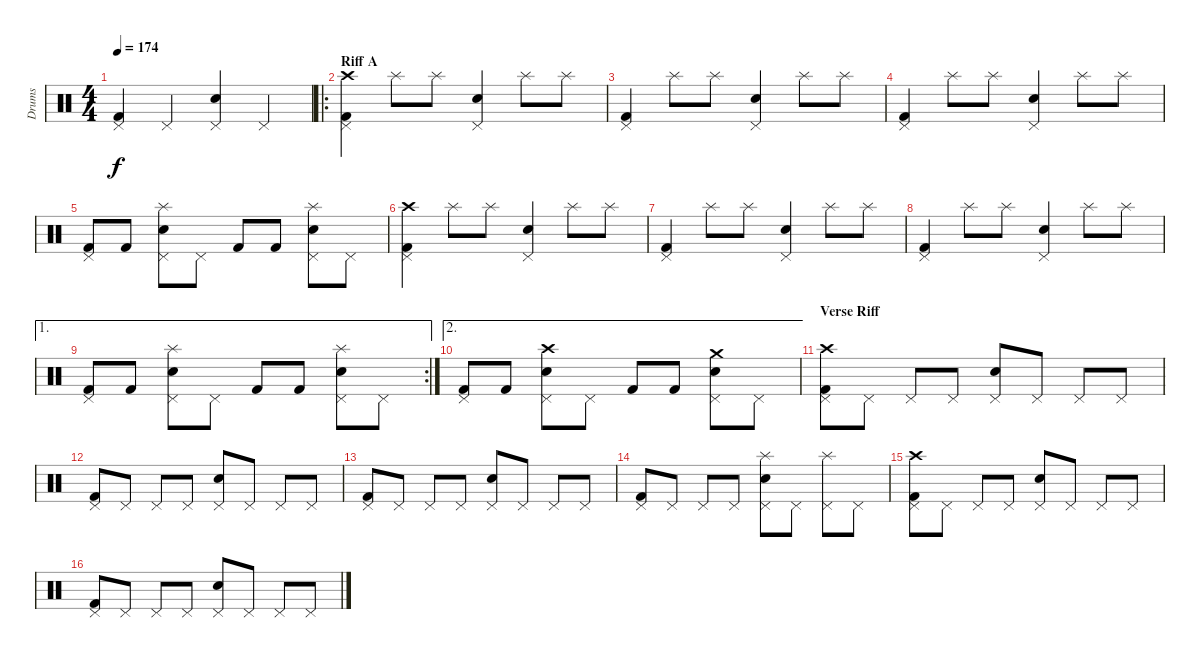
\track ("Drums" "Drums") {instrument percussion}
\staff {score}
\articulation defaults
\ts (4 4)
\tempo 174
\clef neutral
\ks c
("Kick (hit) 2" "Pedal Hi-Hat (hit)").4{dy f} "Pedal Hi-Hat (hit)".4 ("Snare (hit) 2" "Pedal Hi-Hat (hit)").4 "Pedal Hi-Hat (hit)".4 |
\ro
\section ("" "Riff A")
("Kick (hit) 2" "Pedal Hi-Hat (hit)" "Crash high (hit)").4 "Splash (hit)".8 "Splash (hit)".8 ("Snare (hit) 2" "Pedal Hi-Hat (hit)").4 "Splash (hit)".8 "Splash (hit)".8 |
("Kick (hit) 2" "Pedal Hi-Hat (hit)").4 "Splash (hit)".8 "Splash (hit)".8 ("Snare (hit) 2" "Pedal Hi-Hat (hit)").4 "Splash (hit)".8 "Splash (hit)".8 |
("Kick (hit) 2" "Pedal Hi-Hat (hit)").4 "Splash (hit)".8 "Splash (hit)".8 ("Snare (hit) 2" "Pedal Hi-Hat (hit)").4 "Splash (hit)".8 "Splash (hit)".8 |
("Kick (hit) 2" "Pedal Hi-Hat (hit)").8 "Kick (hit) 2".8 ("Snare (hit) 2" "Pedal Hi-Hat (hit)" "Splash (hit)").8 "Pedal Hi-Hat (hit)".8 "Kick (hit) 2".8 "Kick (hit) 2".8 ("Snare (hit) 2" "Pedal Hi-Hat (hit)" "Splash (hit)").8 "Pedal Hi-Hat (hit)".8 |
("Kick (hit) 2" "Pedal Hi-Hat (hit)" "Crash high (hit)").4 "Splash (hit)".8 "Splash (hit)".8 ("Snare (hit) 2" "Pedal Hi-Hat (hit)").4 "Splash (hit)".8 "Splash (hit)".8 |
("Kick (hit) 2" "Pedal Hi-Hat (hit)").4 "Splash (hit)".8 "Splash (hit)".8 ("Snare (hit) 2" "Pedal Hi-Hat (hit)").4 "Splash (hit)".8 "Splash (hit)".8 |
("Kick (hit) 2" "Pedal Hi-Hat (hit)").4 "Splash (hit)".8 "Splash (hit)".8 ("Snare (hit) 2" "Pedal Hi-Hat (hit)").4 "Splash (hit)".8 "Splash (hit)".8 |
\ae 1
\rc 2
("Kick (hit) 2" "Pedal Hi-Hat (hit)").8 "Kick (hit) 2".8 ("Snare (hit) 2" "Pedal Hi-Hat (hit)" "Splash (hit)").8 "Pedal Hi-Hat (hit)".8 "Kick (hit) 2".8 "Kick (hit) 2".8 ("Snare (hit) 2" "Pedal Hi-Hat (hit)" "Splash (hit)").8 "Pedal Hi-Hat (hit)".8 |
\ae 2
("Kick (hit) 2" "Pedal Hi-Hat (hit)").8 "Kick (hit) 2".8 ("Snare (hit) 2" "Pedal Hi-Hat (hit)" "Crash high (hit)").8 "Pedal Hi-Hat (hit)".8 "Kick (hit) 2".8 "Kick (hit) 2".8 ("Snare (hit) 2" "Pedal Hi-Hat (hit)" "Crash medium (hit)").8 "Pedal Hi-Hat (hit)".8 |
\section ("" "Verse Riff")
("Kick (hit) 2" "Pedal Hi-Hat (hit)" "Crash high (hit)").8 "Pedal Hi-Hat (hit)".8 "Pedal Hi-Hat (hit)".8 "Pedal Hi-Hat (hit)".8 ("Snare (hit) 2" "Pedal Hi-Hat (hit)").8 "Pedal Hi-Hat (hit)".8 "Pedal Hi-Hat (hit)".8 "Pedal Hi-Hat (hit)".8 |
("Kick (hit) 2" "Pedal Hi-Hat (hit)").8 "Pedal Hi-Hat (hit)".8 "Pedal Hi-Hat (hit)".8 "Pedal Hi-Hat (hit)".8 ("Snare (hit) 2" "Pedal Hi-Hat (hit)").8 "Pedal Hi-Hat (hit)".8 "Pedal Hi-Hat (hit)".8 "Pedal Hi-Hat (hit)".8 |
("Kick (hit) 2" "Pedal Hi-Hat (hit)").8 "Pedal Hi-Hat (hit)".8 "Pedal Hi-Hat (hit)".8 "Pedal Hi-Hat (hit)".8 ("Snare (hit) 2" "Pedal Hi-Hat (hit)").8 "Pedal Hi-Hat (hit)".8 "Pedal Hi-Hat (hit)".8 "Pedal Hi-Hat (hit)".8 |
("Kick (hit) 2" "Pedal Hi-Hat (hit)").8 "Pedal Hi-Hat (hit)".8 "Pedal Hi-Hat (hit)".8 "Pedal Hi-Hat (hit)".8 ("Snare (hit) 2" "Pedal Hi-Hat (hit)" "Splash (hit)").8 "Pedal Hi-Hat (hit)".8 ("Pedal Hi-Hat (hit)" "Splash (hit)").8 "Pedal Hi-Hat (hit)".8 |
("Kick (hit) 2" "Pedal Hi-Hat (hit)" "Crash high (hit)").8 "Pedal Hi-Hat (hit)".8 "Pedal Hi-Hat (hit)".8 "Pedal Hi-Hat (hit)".8 ("Snare (hit) 2" "Pedal Hi-Hat (hit)").8 "Pedal Hi-Hat (hit)".8 "Pedal Hi-Hat (hit)".8 "Pedal Hi-Hat (hit)".8 |
("Kick (hit) 2" "Pedal Hi-Hat (hit)").8 "Pedal Hi-Hat (hit)".8 "Pedal Hi-Hat (hit)".8 "Pedal Hi-Hat (hit)".8 ("Snare (hit) 2" "Pedal Hi-Hat (hit)").8 "Pedal Hi-Hat (hit)".8 "Pedal Hi-Hat (hit)".8 "Pedal Hi-Hat (hit)".8
